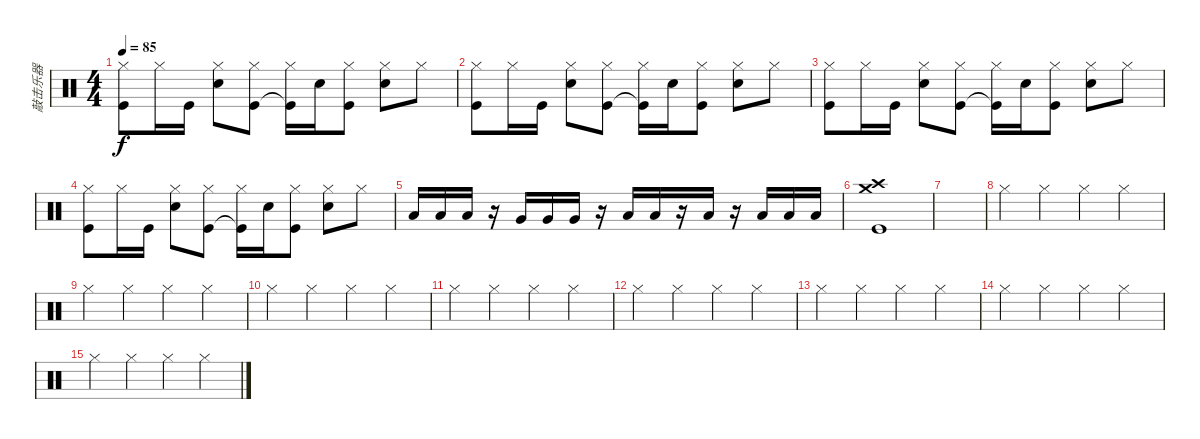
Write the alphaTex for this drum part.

\track ("敲击乐器" "敲击乐器") {instrument percussion}
\staff {score}
\articulation defaults
\ts (4 4)
\tempo 85
\clef neutral
\ks c
("Hi-Hat (closed)" "Kick (hit)").8{dy f} "Hi-Hat (closed)".16 "Kick (hit)".16 ("Hi-Hat (closed)" "Snare (hit) 2").8 ("Hi-Hat (closed)" "Kick (hit)").8 ("Hi-Hat (closed)" "Kick (hit)"{t}).16 "Snare (hit) 2".16 ("Hi-Hat (closed)" "Kick (hit)").8 ("Hi-Hat (closed)" "Snare (hit) 2").8 "Hi-Hat (closed)".8 |
("Hi-Hat (closed)" "Kick (hit)").8 "Hi-Hat (closed)".16 "Kick (hit)".16 ("Hi-Hat (closed)" "Snare (hit) 2").8 ("Hi-Hat (closed)" "Kick (hit)").8 ("Hi-Hat (closed)" "Kick (hit)"{t}).16 "Snare (hit) 2".16 ("Hi-Hat (closed)" "Kick (hit)").8 ("Hi-Hat (closed)" "Snare (hit) 2").8 "Hi-Hat (closed)".8 |
("Hi-Hat (closed)" "Kick (hit)").8 "Hi-Hat (closed)".16 "Kick (hit)".16 ("Hi-Hat (closed)" "Snare (hit) 2").8 ("Hi-Hat (closed)" "Kick (hit)").8 ("Hi-Hat (closed)" "Kick (hit)"{t}).16 "Snare (hit) 2".16 ("Hi-Hat (closed)" "Kick (hit)").8 ("Hi-Hat (closed)" "Snare (hit) 2").8 "Hi-Hat (closed)".8 |
("Hi-Hat (closed)" "Kick (hit)").8 "Hi-Hat (closed)".16 "Kick (hit)".16 ("Hi-Hat (closed)" "Snare (hit) 2").8 ("Hi-Hat (closed)" "Kick (hit)").8 ("Hi-Hat (closed)" "Kick (hit)"{t}).16 "Snare (hit) 2".16 ("Hi-Hat (closed)" "Kick (hit)").8 ("Hi-Hat (closed)" "Snare (hit) 2").8 "Hi-Hat (closed)".8 |
"Low Tom (hit)".16 "Low Tom (hit)".16 "Low Tom (hit)".16 r.16 "Very Low Tom (hit)".16 "Very Low Tom (hit)".16 "Very Low Tom (hit)".16 r.16 "Low Floor Tom (hit)".16 "Low Floor Tom (hit)".16 r.16 "Low Floor Tom (hit)".16 r.16 "Low Floor Tom (hit)".16 "Low Floor Tom (hit)".16 "Low Floor Tom (hit)".16 |
("Crash high (hit)" "Crash medium (hit)" "Kick (hit)").1 |
|
"Hi-Hat (closed)".4 "Hi-Hat (closed)".4 "Hi-Hat (closed)".4 "Hi-Hat (closed)".4 |
"Hi-Hat (closed)".4 "Hi-Hat (closed)".4 "Hi-Hat (closed)".4 "Hi-Hat (closed)".4 |
"Hi-Hat (closed)".4 "Hi-Hat (closed)".4 "Hi-Hat (closed)".4 "Hi-Hat (closed)".4 |
"Hi-Hat (closed)".4 "Hi-Hat (closed)".4 "Hi-Hat (closed)".4 "Hi-Hat (closed)".4 |
"Hi-Hat (closed)".4 "Hi-Hat (closed)".4 "Hi-Hat (closed)".4 "Hi-Hat (closed)".4 |
"Hi-Hat (closed)".4 "Hi-Hat (closed)".4 "Hi-Hat (closed)".4 "Hi-Hat (closed)".4 |
"Hi-Hat (closed)".4 "Hi-Hat (closed)".4 "Hi-Hat (closed)".4 "Hi-Hat (closed)".4 |
"Hi-Hat (closed)".4 "Hi-Hat (closed)".4 "Hi-Hat (closed)".4 "Hi-Hat (closed)".4
